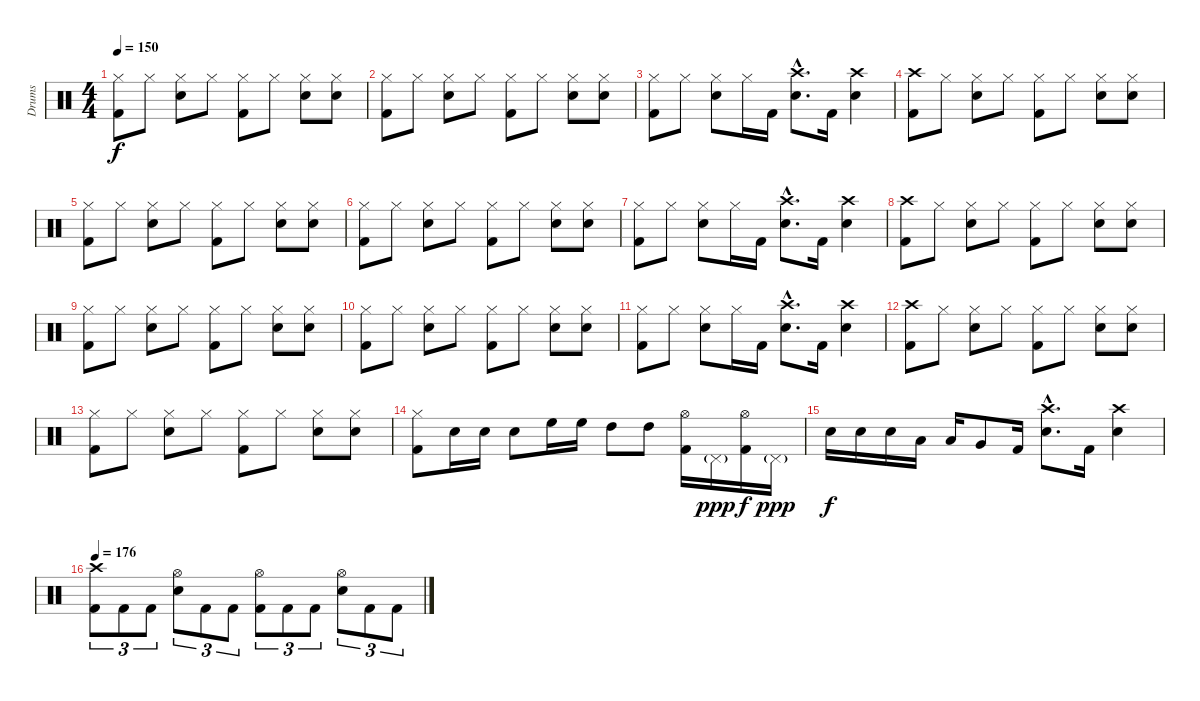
\track ("Drums" "Drums") {instrument percussion}
\staff {score}
\articulation defaults
\ts (4 4)
\tempo 150
\clef neutral
\ks c
("Hi-Hat (closed)" "Kick (hit) 2").8{dy f} "Hi-Hat (closed)".8 ("Hi-Hat (closed)" "Electric Snare (hit)").8 "Hi-Hat (closed)".8 ("Hi-Hat (closed)" "Kick (hit) 2").8 "Hi-Hat (closed)".8 ("Hi-Hat (closed)" "Electric Snare (hit)").8 ("Hi-Hat (closed)" "Electric Snare (hit)").8 |
("Hi-Hat (closed)" "Kick (hit) 2").8 "Hi-Hat (closed)".8 ("Hi-Hat (closed)" "Electric Snare (hit)").8 "Hi-Hat (closed)".8 ("Hi-Hat (closed)" "Kick (hit) 2").8 "Hi-Hat (closed)".8 ("Hi-Hat (closed)" "Electric Snare (hit)").8 ("Hi-Hat (closed)" "Electric Snare (hit)").8 |
("Hi-Hat (closed)" "Kick (hit) 2").8 "Hi-Hat (closed)".8 ("Hi-Hat (closed)" "Electric Snare (hit)").8 "Hi-Hat (closed)".16 "Kick (hit) 2".16 ("Crash high (hit)"{hac} "Electric Snare (hit)"{hac}).8{d} "Kick (hit) 2".16 ("Crash high (hit)" "Electric Snare (hit)").4 |
("Crash high (hit)" "Kick (hit) 2").8 "Hi-Hat (closed)".8 ("Hi-Hat (closed)" "Electric Snare (hit)").8 "Hi-Hat (closed)".8 ("Hi-Hat (closed)" "Kick (hit) 2").8 "Hi-Hat (closed)".8 ("Hi-Hat (closed)" "Electric Snare (hit)").8 ("Hi-Hat (closed)" "Electric Snare (hit)").8 |
("Hi-Hat (closed)" "Kick (hit) 2").8 "Hi-Hat (closed)".8 ("Hi-Hat (closed)" "Electric Snare (hit)").8 "Hi-Hat (closed)".8 ("Hi-Hat (closed)" "Kick (hit) 2").8 "Hi-Hat (closed)".8 ("Hi-Hat (closed)" "Electric Snare (hit)").8 ("Hi-Hat (closed)" "Electric Snare (hit)").8 |
("Hi-Hat (closed)" "Kick (hit) 2").8 "Hi-Hat (closed)".8 ("Hi-Hat (closed)" "Electric Snare (hit)").8 "Hi-Hat (closed)".8 ("Hi-Hat (closed)" "Kick (hit) 2").8 "Hi-Hat (closed)".8 ("Hi-Hat (closed)" "Electric Snare (hit)").8 ("Hi-Hat (closed)" "Electric Snare (hit)").8 |
("Hi-Hat (closed)" "Kick (hit) 2").8 "Hi-Hat (closed)".8 ("Hi-Hat (closed)" "Electric Snare (hit)").8 "Hi-Hat (closed)".16 "Kick (hit) 2".16 ("Crash high (hit)"{hac} "Electric Snare (hit)"{hac}).8{d} "Kick (hit) 2".16 ("Crash high (hit)" "Electric Snare (hit)").4 |
("Crash high (hit)" "Kick (hit) 2").8 "Hi-Hat (closed)".8 ("Hi-Hat (closed)" "Electric Snare (hit)").8 "Hi-Hat (closed)".8 ("Hi-Hat (closed)" "Kick (hit) 2").8 "Hi-Hat (closed)".8 ("Hi-Hat (closed)" "Electric Snare (hit)").8 ("Hi-Hat (closed)" "Electric Snare (hit)").8 |
("Hi-Hat (closed)" "Kick (hit) 2").8 "Hi-Hat (closed)".8 ("Hi-Hat (closed)" "Electric Snare (hit)").8 "Hi-Hat (closed)".8 ("Hi-Hat (closed)" "Kick (hit) 2").8 "Hi-Hat (closed)".8 ("Hi-Hat (closed)" "Electric Snare (hit)").8 ("Hi-Hat (closed)" "Electric Snare (hit)").8 |
("Hi-Hat (closed)" "Kick (hit) 2").8 "Hi-Hat (closed)".8 ("Hi-Hat (closed)" "Electric Snare (hit)").8 "Hi-Hat (closed)".8 ("Hi-Hat (closed)" "Kick (hit) 2").8 "Hi-Hat (closed)".8 ("Hi-Hat (closed)" "Electric Snare (hit)").8 ("Hi-Hat (closed)" "Electric Snare (hit)").8 |
("Hi-Hat (closed)" "Kick (hit) 2").8 "Hi-Hat (closed)".8 ("Hi-Hat (closed)" "Electric Snare (hit)").8 "Hi-Hat (closed)".16 "Kick (hit) 2".16 ("Crash high (hit)"{hac} "Electric Snare (hit)"{hac}).8{d} "Kick (hit) 2".16 ("Crash high (hit)" "Electric Snare (hit)").4 |
("Crash high (hit)" "Kick (hit) 2").8 "Hi-Hat (closed)".8 ("Hi-Hat (closed)" "Electric Snare (hit)").8 "Hi-Hat (closed)".8 ("Hi-Hat (closed)" "Kick (hit) 2").8 "Hi-Hat (closed)".8 ("Hi-Hat (closed)" "Electric Snare (hit)").8 ("Hi-Hat (closed)" "Electric Snare (hit)").8 |
("Hi-Hat (closed)" "Kick (hit) 2").8 "Hi-Hat (closed)".8 ("Hi-Hat (closed)" "Electric Snare (hit)").8 "Hi-Hat (closed)".8 ("Hi-Hat (closed)" "Kick (hit) 2").8 "Hi-Hat (closed)".8 ("Hi-Hat (closed)" "Electric Snare (hit)").8 ("Hi-Hat (closed)" "Electric Snare (hit)").8 |
("Hi-Hat (closed)" "Kick (hit) 2").8 "Electric Snare (hit)".16 "Electric Snare (hit)".16 "Electric Snare (hit)".8 "High Floor Tom (hit)".16 "High Floor Tom (hit)".16 "High Tom (hit)".8 "High Tom (hit)".8 ("Hi-Hat (open)" "Kick (hit) 2").16 "Pedal Hi-Hat (hit)"{g}.16{dy ppp} ("Hi-Hat (open)" "Kick (hit) 2").16{dy f} "Pedal Hi-Hat (hit)"{g}.16{dy ppp} |
"Electric Snare (hit)".16{dy f} "Electric Snare (hit)".16 "Electric Snare (hit)".16 "Low Tom (hit)".16 "Low Tom (hit)".16 "Very Low Tom (hit)".8 "Kick (hit) 2".16 ("Crash high (hit)"{hac} "Electric Snare (hit)"{hac}).8{d} "Kick (hit) 2".16 ("Crash high (hit)" "Electric Snare (hit)").4 |
\tempo 176
("Crash high (hit)" "Kick (hit) 2").8{tu (3 2)} "Kick (hit) 2".8{tu (3 2)} "Kick (hit) 2".8{tu (3 2)} ("Hi-Hat (open)" "Electric Snare (hit)").8{tu (3 2)} "Kick (hit) 2".8{tu (3 2)} "Kick (hit) 2".8{tu (3 2)} ("Hi-Hat (open)" "Kick (hit) 2").8{tu (3 2)} "Kick (hit) 2".8{tu (3 2)} "Kick (hit) 2".8{tu (3 2)} ("Hi-Hat (open)" "Electric Snare (hit)").8{tu (3 2)} "Kick (hit) 2".8{tu (3 2)} "Kick (hit) 2".8{tu (3 2)}
